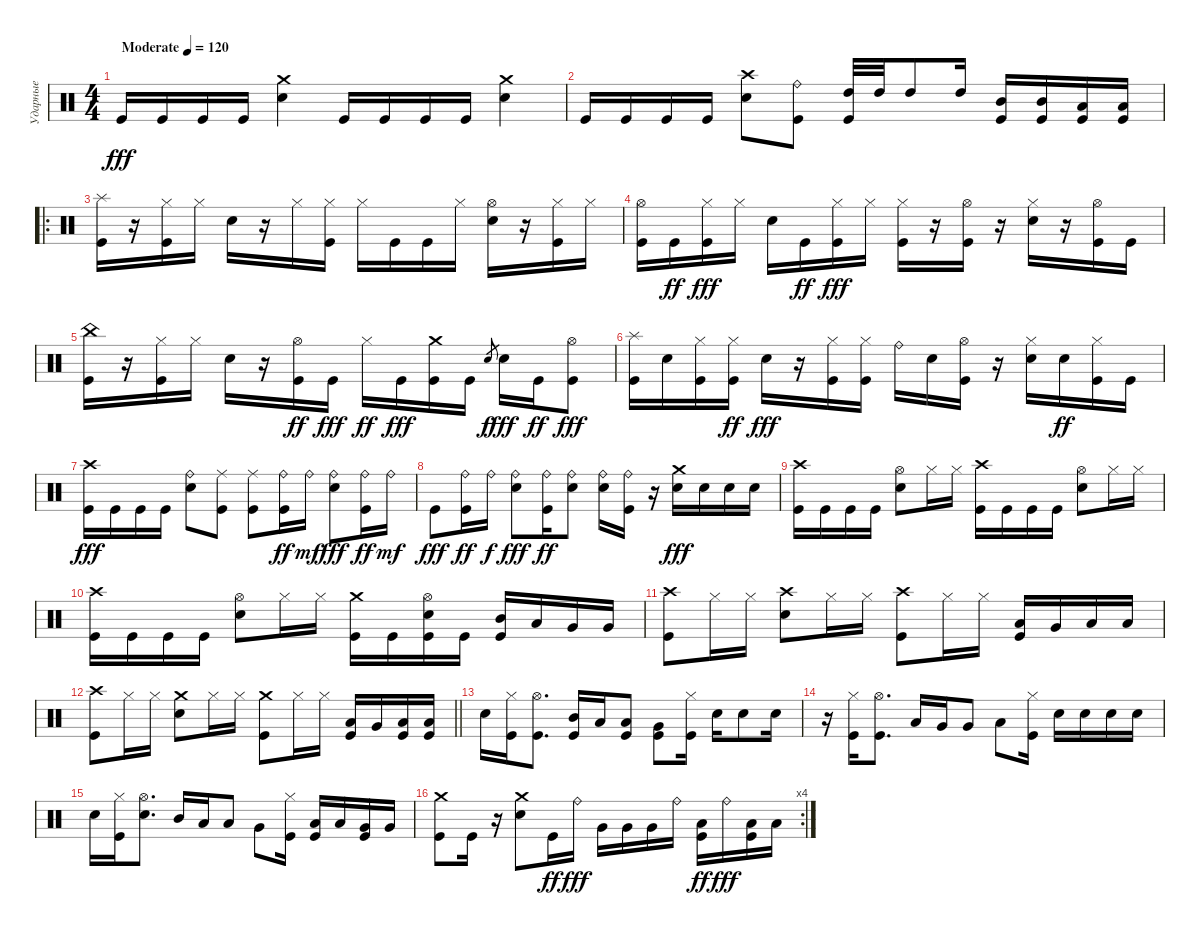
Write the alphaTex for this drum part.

\track ("Ударные" "Ударные") {instrument percussion}
\staff {score}
\articulation defaults
\ts (4 4)
\tempo (120 "Moderate")
\clef neutral
\ks c "Kick (hit)".16{dy fff} "Kick (hit)".16 "Kick (hit)".16 "Kick (hit)".16
("Crash medium (hit)" "Electric Snare (hit)").4 "Kick (hit)".16 "Kick (hit)".16 "Kick (hit)".16 "Kick (hit)".16 ("Crash medium (hit)" "Electric Snare (hit)").4 |
"Kick (hit)".16 "Kick (hit)".16 "Kick (hit)".16 "Kick (hit)".16 ("Crash high (hit)" "Electric Snare (hit)").8 ("Ride (bell)" "Kick (hit)").8 ("High Tom (hit)" "Kick (hit)").32 "High Tom (hit)".32 "High Tom (hit)".8 "High Tom (hit)".16 ("Mid Tom (hit)" "Kick (hit)").16 ("Mid Tom (hit)" "Kick (hit)").16 ("Low Tom (hit)" "Kick (hit)").16 ("Low Tom (hit)" "Kick (hit)").16 |
\ro
("Splash (hit)" "Kick (hit)").16 r.16 ("Hi-Hat (closed)" "Kick (hit)").16 "Hi-Hat (closed)".16 "Electric Snare (hit)".16 r.16 "Hi-Hat (closed)".16 ("Hi-Hat (closed)" "Kick (hit)").16 "Hi-Hat (closed)".16 "Kick (hit)".16 "Kick (hit)".16 "Hi-Hat (closed)".16 ("Hi-Hat (open)" "Electric Snare (hit)").16 r.16 ("Hi-Hat (closed)" "Kick (hit)").16 "Hi-Hat (closed)".16 |
("Hi-Hat (open)" "Kick (hit)").16 "Kick (hit)".16{dy ff} ("Hi-Hat (closed)" "Kick (hit)").16{dy fff} "Hi-Hat (closed)".16 "Electric Snare (hit)".16 "Kick (hit)".16{dy ff} ("Hi-Hat (closed)" "Kick (hit)").16{dy fff} "Hi-Hat (closed)".16 ("Hi-Hat (closed)" "Kick (hit)").16 r.16 ("Hi-Hat (open)" "Kick (hit)").16 r.16 ("Hi-Hat (closed)" "Electric Snare (hit)").16 r.16 ("Hi-Hat (open)" "Kick (hit)").16 "Kick (hit)".16 |
("China (hit)" "Kick (hit)").16 r.16 ("Hi-Hat (closed)" "Kick (hit)").16 "Hi-Hat (closed)".16 "Electric Snare (hit)".16 r.16 ("Hi-Hat (open)" "Kick (hit)").16{dy ff} "Kick (hit)".16{dy fff} "Hi-Hat (closed)".16{dy ff} "Kick (hit)".16{dy fff} ("Crash medium (hit)" "Kick (hit)").16 "Kick (hit)".16 "Electric Snare (hit)".8{gr dy f} "Electric Snare (hit)".16{dy fff} "Kick (hit)".16{dy ff} ("Hi-Hat (open)" "Kick (hit)").8{dy fff} |
("Splash (hit)" "Kick (hit)").16 "Electric Snare (hit)".16 ("Hi-Hat (closed)" "Kick (hit)").16 ("Hi-Hat (closed)" "Kick (hit)").16{dy ff} "Electric Snare (hit)".16{dy fff} r.16 ("Hi-Hat (closed)" "Kick (hit)").16 ("Hi-Hat (closed)" "Kick (hit)").16 "Ride (bell)".16 "Electric Snare (hit)".16 ("Hi-Hat (open)" "Kick (hit)").16 r.16 ("Hi-Hat (closed)" "Electric Snare (hit)").16 "Electric Snare (hit)".16{dy ff} ("Hi-Hat (closed)" "Kick (hit)").16 "Kick (hit)".16 |
("Crash high (hit)" "Kick (hit)").16{dy fff} "Kick (hit)".16 "Kick (hit)".16 "Kick (hit)".16 ("Ride (bell)" "Electric Snare (hit)").8 ("Ride (middle)" "Kick (hit)").8 ("Ride (middle)" "Kick (hit)").8 ("Ride (bell)" "Kick (hit)").16{dy ff} "Ride (bell)".16{dy mf} ("Ride (bell)" "Electric Snare (hit)").8{dy fff} ("Ride (bell)" "Kick (hit)").16{dy ff} "Ride (bell)".16{dy mf} |
"Kick (hit)".8{dy fff} ("Ride (bell)" "Kick (hit)").16{dy ff} "Ride (bell)".16{dy f} ("Ride (bell)" "Electric Snare (hit)").8{dy fff} ("Ride (bell)" "Kick (hit)").16{dy ff} ("Ride (bell)" "Electric Snare (hit)").8 ("Ride (bell)" "Electric Snare (hit)").16 ("Ride (bell)" "Kick (hit)").16 r.16 ("Crash medium (hit)" "Electric Snare (hit)").16{dy fff} "Electric Snare (hit)".16 "Electric Snare (hit)".16 "Electric Snare (hit)".16 |
("Crash high (hit)" "Kick (hit)").16 "Kick (hit)".16 "Kick (hit)".16 "Kick (hit)".16 ("Hi-Hat (open)" "Electric Snare (hit)").8 "Hi-Hat (closed)".16 "Hi-Hat (closed)".16 ("Crash high (hit)" "Kick (hit)").16 "Kick (hit)".16 "Kick (hit)".16 "Kick (hit)".16 ("Hi-Hat (open)" "Electric Snare (hit)").8 "Hi-Hat (closed)".16 "Hi-Hat (closed)".16 |
("Crash high (hit)" "Kick (hit)").16 "Kick (hit)".16 "Kick (hit)".16 "Kick (hit)".16 ("Hi-Hat (open)" "Electric Snare (hit)").8 "Hi-Hat (closed)".16 "Hi-Hat (closed)".16 ("Crash medium (hit)" "Kick (hit)").16 "Kick (hit)".16 ("Hi-Hat (open)" "Electric Snare (hit)" "Kick (hit)").16 "Kick (hit)".16 ("Mid Tom (hit)" "Kick (hit)").16 "Low Tom (hit)".16 "Very Low Tom (hit)".16 "Very Low Tom (hit)".16 |
("Crash high (hit)" "Kick (hit)").8 "Hi-Hat (closed)".16 "Hi-Hat (closed)".16 ("Crash high (hit)" "Electric Snare (hit)").8 "Hi-Hat (closed)".16 "Hi-Hat (closed)".16 ("Crash high (hit)" "Kick (hit)").8 "Hi-Hat (closed)".16 "Hi-Hat (closed)".16 ("Low Tom (hit)" "Kick (hit)").16 "Very Low Tom (hit)".16 "Low Floor Tom (hit)".16 "Low Floor Tom (hit)".16 |
\barLineRight lightlight
("Crash high (hit)" "Kick (hit)").8 "Hi-Hat (closed)".16 "Hi-Hat (closed)".16 ("Crash medium (hit)" "Electric Snare (hit)").8 "Hi-Hat (closed)".16 "Hi-Hat (closed)".16 ("Crash medium (hit)" "Kick (hit)").8 "Hi-Hat (closed)".16 "Hi-Hat (closed)".16 ("Low Floor Tom (hit)" "Kick (hit)").16 "Very Low Tom (hit)".16 ("Low Floor Tom (hit)" "Kick (hit)").16 ("Low Floor Tom (hit)" "Kick (hit)").16 |
"Electric Snare (hit)".16 ("Hi-Hat (closed)" "Kick (hit)").16 ("Hi-Hat (open)" "Kick (hit)").8{d} ("Mid Tom (hit)" "Kick (hit)").16 "Low Tom (hit)".16 ("Low Tom (hit)" "Kick (hit)").8 ("Very Low Tom (hit)" "Kick (hit)").8 ("Hi-Hat (closed)" "Kick (hit)").16 "Electric Snare (hit)".16 "Electric Snare (hit)".8 "Electric Snare (hit)".16 |
r.16 ("Hi-Hat (closed)" "Kick (hit)").16 ("Hi-Hat (open)" "Kick (hit)").8{d} "Low Tom (hit)".16 "Very Low Tom (hit)".16 "Very Low Tom (hit)".8 "Low Floor Tom (hit)".8 ("Hi-Hat (closed)" "Kick (hit)").16 "Electric Snare (hit)".16 "Electric Snare (hit)".16 "Electric Snare (hit)".16 "Electric Snare (hit)".16 |
"Electric Snare (hit)".16 ("Hi-Hat (closed)" "Kick (hit)").16 ("Hi-Hat (open)" "Electric Snare (hit)").8{d} "Mid Tom (hit)".16 "Low Tom (hit)".16 "Low Tom (hit)".8 "Very Low Tom (hit)".8 ("Hi-Hat (closed)" "Kick (hit)").16 ("Low Tom (hit)" "Kick (hit)").16 "Low Tom (hit)".16 ("Very Low Tom (hit)" "Kick (hit)").16 "Very Low Tom (hit)".16 |
\rc 4
("Crash medium (hit)" "Kick (hit)").8 "Kick (hit)".16 r.16 ("Crash medium (hit)" "Electric Snare (hit)").8 "Kick (hit)".16{dy ff} "Ride (bell)".16{dy fff} "Very Low Tom (hit)".16 "Very Low Tom (hit)".16 "Very Low Tom (hit)".16 "Ride (bell)".16 ("Low Floor Tom (hit)" "Kick (hit)").16{dy ff} "Ride (bell)".16{dy fff} ("Low Floor Tom (hit)" "Kick (hit)").16 "Low Floor Tom (hit)".16
